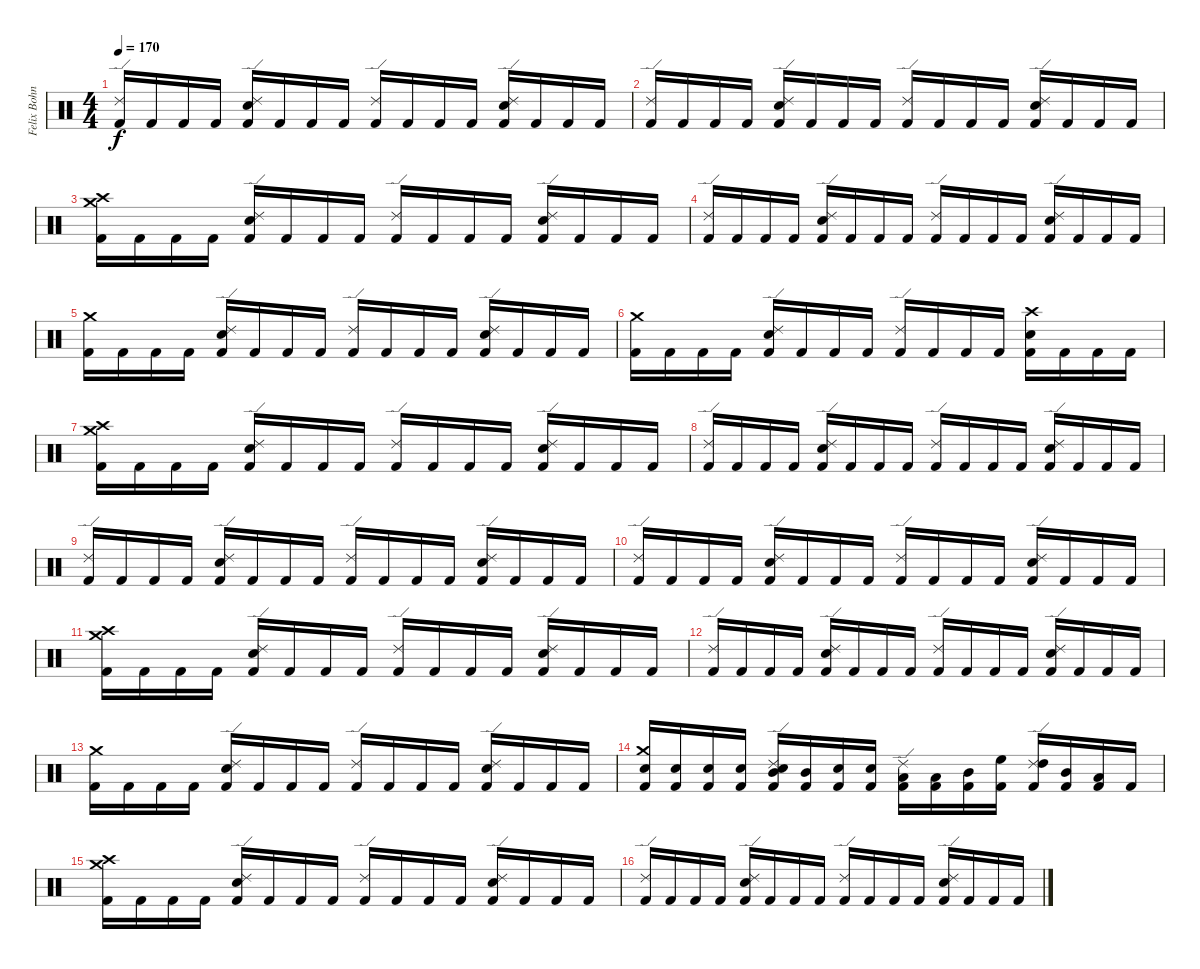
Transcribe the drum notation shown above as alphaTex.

\track ("Felix Bohnke - Drums" "Felix Bohn") {instrument percussion}
\staff {score}
\articulation defaults
\ts (4 4)
\tempo 170
\clef neutral
\ks c
("Ride (edge) 2" "Kick (hit) 2").16{dy f} "Kick (hit) 2".16 "Kick (hit) 2".16 "Kick (hit) 2".16 ("Ride (edge) 2" "Snare (hit) 2" "Kick (hit) 2").16 "Kick (hit) 2".16 "Kick (hit) 2".16 "Kick (hit) 2".16 ("Ride (edge) 2" "Kick (hit) 2").16 "Kick (hit) 2".16 "Kick (hit) 2".16 "Kick (hit) 2".16 ("Ride (edge) 2" "Snare (hit) 2" "Kick (hit) 2").16 "Kick (hit) 2".16 "Kick (hit) 2".16 "Kick (hit) 2".16 |
("Ride (edge) 2" "Kick (hit) 2").16 "Kick (hit) 2".16 "Kick (hit) 2".16 "Kick (hit) 2".16 ("Ride (edge) 2" "Snare (hit) 2" "Kick (hit) 2").16 "Kick (hit) 2".16 "Kick (hit) 2".16 "Kick (hit) 2".16 ("Ride (edge) 2" "Kick (hit) 2").16 "Kick (hit) 2".16 "Kick (hit) 2".16 "Kick (hit) 2".16 ("Ride (edge) 2" "Snare (hit) 2" "Kick (hit) 2").16 "Kick (hit) 2".16 "Kick (hit) 2".16 "Kick (hit) 2".16 |
("Crash high (hit)" "Crash medium (hit)" "Kick (hit) 2").16 "Kick (hit) 2".16 "Kick (hit) 2".16 "Kick (hit) 2".16 ("Ride (edge) 2" "Snare (hit) 2" "Kick (hit) 2").16 "Kick (hit) 2".16 "Kick (hit) 2".16 "Kick (hit) 2".16 ("Ride (edge) 2" "Kick (hit) 2").16 "Kick (hit) 2".16 "Kick (hit) 2".16 "Kick (hit) 2".16 ("Ride (edge) 2" "Snare (hit) 2" "Kick (hit) 2").16 "Kick (hit) 2".16 "Kick (hit) 2".16 "Kick (hit) 2".16 |
("Ride (edge) 2" "Kick (hit) 2").16 "Kick (hit) 2".16 "Kick (hit) 2".16 "Kick (hit) 2".16 ("Ride (edge) 2" "Snare (hit) 2" "Kick (hit) 2").16 "Kick (hit) 2".16 "Kick (hit) 2".16 "Kick (hit) 2".16 ("Ride (edge) 2" "Kick (hit) 2").16 "Kick (hit) 2".16 "Kick (hit) 2".16 "Kick (hit) 2".16 ("Ride (edge) 2" "Snare (hit) 2" "Kick (hit) 2").16 "Kick (hit) 2".16 "Kick (hit) 2".16 "Kick (hit) 2".16 |
("Crash medium (hit)" "Kick (hit) 2").16 "Kick (hit) 2".16 "Kick (hit) 2".16 "Kick (hit) 2".16 ("Ride (edge) 2" "Snare (hit) 2" "Kick (hit) 2").16 "Kick (hit) 2".16 "Kick (hit) 2".16 "Kick (hit) 2".16 ("Ride (edge) 2" "Kick (hit) 2").16 "Kick (hit) 2".16 "Kick (hit) 2".16 "Kick (hit) 2".16 ("Ride (edge) 2" "Snare (hit) 2" "Kick (hit) 2").16 "Kick (hit) 2".16 "Kick (hit) 2".16 "Kick (hit) 2".16 |
("Crash medium (hit)" "Kick (hit) 2").16 "Kick (hit) 2".16 "Kick (hit) 2".16 "Kick (hit) 2".16 ("Ride (edge) 2" "Snare (hit) 2" "Kick (hit) 2").16 "Kick (hit) 2".16 "Kick (hit) 2".16 "Kick (hit) 2".16 ("Ride (edge) 2" "Kick (hit) 2").16 "Kick (hit) 2".16 "Kick (hit) 2".16 "Kick (hit) 2".16 ("Crash high (hit)" "Snare (hit) 2" "Kick (hit) 2").16 "Kick (hit) 2".16 "Kick (hit) 2".16 "Kick (hit) 2".16 |
("Crash high (hit)" "Crash medium (hit)" "Kick (hit) 2").16 "Kick (hit) 2".16 "Kick (hit) 2".16 "Kick (hit) 2".16 ("Ride (edge) 2" "Snare (hit) 2" "Kick (hit) 2").16 "Kick (hit) 2".16 "Kick (hit) 2".16 "Kick (hit) 2".16 ("Ride (edge) 2" "Kick (hit) 2").16 "Kick (hit) 2".16 "Kick (hit) 2".16 "Kick (hit) 2".16 ("Ride (edge) 2" "Snare (hit) 2" "Kick (hit) 2").16 "Kick (hit) 2".16 "Kick (hit) 2".16 "Kick (hit) 2".16 |
("Ride (edge) 2" "Kick (hit) 2").16 "Kick (hit) 2".16 "Kick (hit) 2".16 "Kick (hit) 2".16 ("Ride (edge) 2" "Snare (hit) 2" "Kick (hit) 2").16 "Kick (hit) 2".16 "Kick (hit) 2".16 "Kick (hit) 2".16 ("Ride (edge) 2" "Kick (hit) 2").16 "Kick (hit) 2".16 "Kick (hit) 2".16 "Kick (hit) 2".16 ("Ride (edge) 2" "Snare (hit) 2" "Kick (hit) 2").16 "Kick (hit) 2".16 "Kick (hit) 2".16 "Kick (hit) 2".16 |
("Ride (edge) 2" "Kick (hit) 2").16 "Kick (hit) 2".16 "Kick (hit) 2".16 "Kick (hit) 2".16 ("Ride (edge) 2" "Snare (hit) 2" "Kick (hit) 2").16 "Kick (hit) 2".16 "Kick (hit) 2".16 "Kick (hit) 2".16 ("Ride (edge) 2" "Kick (hit) 2").16 "Kick (hit) 2".16 "Kick (hit) 2".16 "Kick (hit) 2".16 ("Ride (edge) 2" "Snare (hit) 2" "Kick (hit) 2").16 "Kick (hit) 2".16 "Kick (hit) 2".16 "Kick (hit) 2".16 |
("Ride (edge) 2" "Kick (hit) 2").16 "Kick (hit) 2".16 "Kick (hit) 2".16 "Kick (hit) 2".16 ("Ride (edge) 2" "Snare (hit) 2" "Kick (hit) 2").16 "Kick (hit) 2".16 "Kick (hit) 2".16 "Kick (hit) 2".16 ("Ride (edge) 2" "Kick (hit) 2").16 "Kick (hit) 2".16 "Kick (hit) 2".16 "Kick (hit) 2".16 ("Ride (edge) 2" "Snare (hit) 2" "Kick (hit) 2").16 "Kick (hit) 2".16 "Kick (hit) 2".16 "Kick (hit) 2".16 |
("Crash high (hit)" "Crash medium (hit)" "Kick (hit) 2").16 "Kick (hit) 2".16 "Kick (hit) 2".16 "Kick (hit) 2".16 ("Ride (edge) 2" "Snare (hit) 2" "Kick (hit) 2").16 "Kick (hit) 2".16 "Kick (hit) 2".16 "Kick (hit) 2".16 ("Ride (edge) 2" "Kick (hit) 2").16 "Kick (hit) 2".16 "Kick (hit) 2".16 "Kick (hit) 2".16 ("Ride (edge) 2" "Snare (hit) 2" "Kick (hit) 2").16 "Kick (hit) 2".16 "Kick (hit) 2".16 "Kick (hit) 2".16 |
("Ride (edge) 2" "Kick (hit) 2").16 "Kick (hit) 2".16 "Kick (hit) 2".16 "Kick (hit) 2".16 ("Ride (edge) 2" "Snare (hit) 2" "Kick (hit) 2").16 "Kick (hit) 2".16 "Kick (hit) 2".16 "Kick (hit) 2".16 ("Ride (edge) 2" "Kick (hit) 2").16 "Kick (hit) 2".16 "Kick (hit) 2".16 "Kick (hit) 2".16 ("Ride (edge) 2" "Snare (hit) 2" "Kick (hit) 2").16 "Kick (hit) 2".16 "Kick (hit) 2".16 "Kick (hit) 2".16 |
("Crash medium (hit)" "Kick (hit) 2").16 "Kick (hit) 2".16 "Kick (hit) 2".16 "Kick (hit) 2".16 ("Ride (edge) 2" "Snare (hit) 2" "Kick (hit) 2").16 "Kick (hit) 2".16 "Kick (hit) 2".16 "Kick (hit) 2".16 ("Ride (edge) 2" "Kick (hit) 2").16 "Kick (hit) 2".16 "Kick (hit) 2".16 "Kick (hit) 2".16 ("Ride (edge) 2" "Snare (hit) 2" "Kick (hit) 2").16 "Kick (hit) 2".16 "Kick (hit) 2".16 "Kick (hit) 2".16 |
("Crash medium (hit)" "Electric Snare (hit)" "Kick (hit) 2").16 ("Electric Snare (hit)" "Kick (hit) 2").16 ("Electric Snare (hit)" "Kick (hit) 2").16 ("Electric Snare (hit)" "Kick (hit) 2").16 ("Ride (edge) 2" "Snare (hit) 2" "Mid Tom (hit)" "Kick (hit) 2").16 ("Mid Tom (hit)" "Kick (hit) 2").16 ("Electric Snare (hit)" "Kick (hit) 2").16 ("Electric Snare (hit)" "Kick (hit) 2").16 ("Ride (edge) 2" "Low Tom (hit)" "Kick (hit) 2").16 ("Low Tom (hit)" "Kick (hit) 2").16 ("Mid Tom (hit)" "Kick (hit) 2").16 ("High Floor Tom (hit)" "Kick (hit) 2").16 ("Ride (edge) 2" "High Tom (hit)" "Kick (hit) 2").16 ("Mid Tom (hit)" "Kick (hit) 2").16 ("Low Tom (hit)" "Kick (hit) 2").16 "Kick (hit) 2".16 |
("Crash high (hit)" "Crash medium (hit)" "Kick (hit) 2").16 "Kick (hit) 2".16 "Kick (hit) 2".16 "Kick (hit) 2".16 ("Ride (edge) 2" "Snare (hit) 2" "Kick (hit) 2").16 "Kick (hit) 2".16 "Kick (hit) 2".16 "Kick (hit) 2".16 ("Ride (edge) 2" "Kick (hit) 2").16 "Kick (hit) 2".16 "Kick (hit) 2".16 "Kick (hit) 2".16 ("Ride (edge) 2" "Snare (hit) 2" "Kick (hit) 2").16 "Kick (hit) 2".16 "Kick (hit) 2".16 "Kick (hit) 2".16 |
("Ride (edge) 2" "Kick (hit) 2").16 "Kick (hit) 2".16 "Kick (hit) 2".16 "Kick (hit) 2".16 ("Ride (edge) 2" "Snare (hit) 2" "Kick (hit) 2").16 "Kick (hit) 2".16 "Kick (hit) 2".16 "Kick (hit) 2".16 ("Ride (edge) 2" "Kick (hit) 2").16 "Kick (hit) 2".16 "Kick (hit) 2".16 "Kick (hit) 2".16 ("Ride (edge) 2" "Snare (hit) 2" "Kick (hit) 2").16 "Kick (hit) 2".16 "Kick (hit) 2".16 "Kick (hit) 2".16
